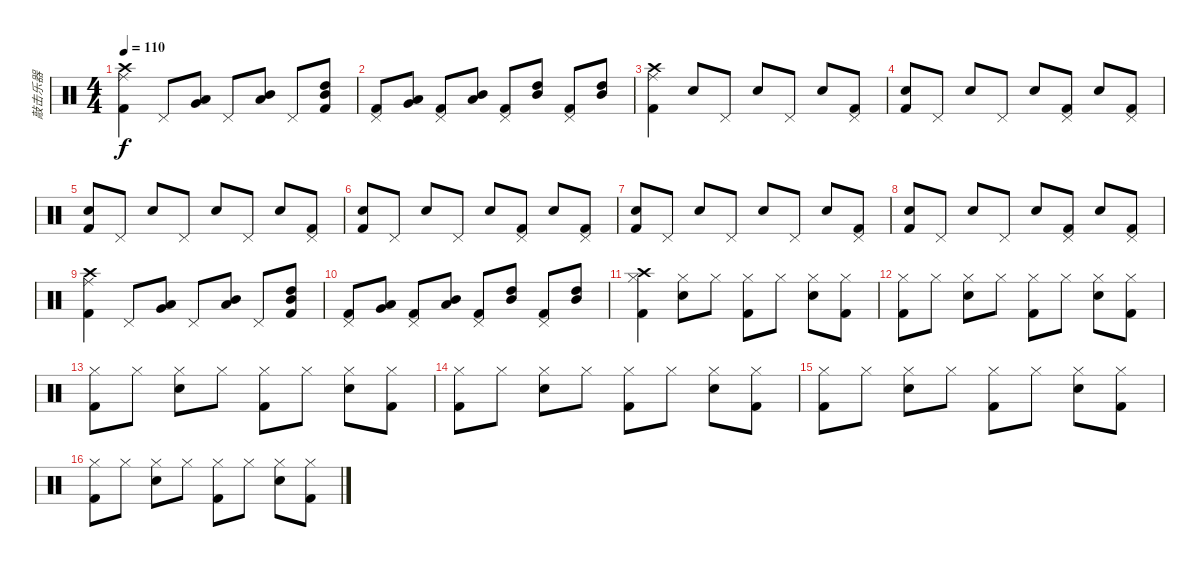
\track ("敲击乐器" "敲击乐器") {instrument percussion}
\staff {score}
\articulation defaults
\ts (4 4)
\tempo 110
\clef neutral
\ks c
("Crash high (hit)" "Ride (middle)" "Kick (hit) 2").4{dy f} "Pedal Hi-Hat (hit)".8 ("Very Low Tom (hit)" "Low Tom (hit)").8 "Pedal Hi-Hat (hit)".8 ("Low Tom (hit)" "Mid Tom (hit)").8 "Pedal Hi-Hat (hit)".8 ("Mid Tom (hit)" "High Tom (hit)" "Kick (hit) 2").8 |
("Pedal Hi-Hat (hit)" "Kick (hit) 2").8 ("Very Low Tom (hit)" "Low Tom (hit)").8 ("Pedal Hi-Hat (hit)" "Kick (hit) 2").8 ("Low Tom (hit)" "Mid Tom (hit)").8 ("Pedal Hi-Hat (hit)" "Kick (hit) 2").8 ("Mid Tom (hit)" "High Tom (hit)").8 ("Pedal Hi-Hat (hit)" "Kick (hit) 2").8 ("Mid Tom (hit)" "High Tom (hit)").8 |
("Crash high (hit)" "Ride (middle)" "Kick (hit) 2").4 "Hand Clap (hit)".8 "Pedal Hi-Hat (hit)".8 "Hand Clap (hit)".8 "Pedal Hi-Hat (hit)".8 "Hand Clap (hit)".8 ("Pedal Hi-Hat (hit)" "Kick (hit) 2").8 |
("Hand Clap (hit)" "Kick (hit) 2").8 "Pedal Hi-Hat (hit)".8 "Hand Clap (hit)".8 "Pedal Hi-Hat (hit)".8 "Hand Clap (hit)".8 ("Pedal Hi-Hat (hit)" "Kick (hit) 2").8 "Hand Clap (hit)".8 ("Pedal Hi-Hat (hit)" "Kick (hit) 2").8 |
("Hand Clap (hit)" "Kick (hit) 2").8 "Pedal Hi-Hat (hit)".8 "Hand Clap (hit)".8 "Pedal Hi-Hat (hit)".8 "Hand Clap (hit)".8 "Pedal Hi-Hat (hit)".8 "Hand Clap (hit)".8 ("Pedal Hi-Hat (hit)" "Kick (hit) 2").8 |
("Hand Clap (hit)" "Kick (hit) 2").8 "Pedal Hi-Hat (hit)".8 "Hand Clap (hit)".8 "Pedal Hi-Hat (hit)".8 "Hand Clap (hit)".8 ("Pedal Hi-Hat (hit)" "Kick (hit) 2").8 "Hand Clap (hit)".8 ("Pedal Hi-Hat (hit)" "Kick (hit) 2").8 |
("Hand Clap (hit)" "Kick (hit) 2").8 "Pedal Hi-Hat (hit)".8 "Hand Clap (hit)".8 "Pedal Hi-Hat (hit)".8 "Hand Clap (hit)".8 "Pedal Hi-Hat (hit)".8 "Hand Clap (hit)".8 ("Pedal Hi-Hat (hit)" "Kick (hit) 2").8 |
("Hand Clap (hit)" "Kick (hit) 2").8 "Pedal Hi-Hat (hit)".8 "Hand Clap (hit)".8 "Pedal Hi-Hat (hit)".8 "Hand Clap (hit)".8 ("Pedal Hi-Hat (hit)" "Kick (hit) 2").8 "Hand Clap (hit)".8 ("Pedal Hi-Hat (hit)" "Kick (hit) 2").8 |
("Crash high (hit)" "Ride (middle)" "Kick (hit) 2").4 "Pedal Hi-Hat (hit)".8 ("Very Low Tom (hit)" "Low Tom (hit)").8 "Pedal Hi-Hat (hit)".8 ("Low Tom (hit)" "Mid Tom (hit)").8 "Pedal Hi-Hat (hit)".8 ("Mid Tom (hit)" "High Tom (hit)" "Kick (hit) 2").8 |
("Pedal Hi-Hat (hit)" "Kick (hit) 2").8 ("Very Low Tom (hit)" "Low Tom (hit)").8 ("Pedal Hi-Hat (hit)" "Kick (hit) 2").8 ("Low Tom (hit)" "Mid Tom (hit)").8 ("Pedal Hi-Hat (hit)" "Kick (hit) 2").8 ("Mid Tom (hit)" "High Tom (hit)").8 ("Pedal Hi-Hat (hit)" "Kick (hit) 2").8 ("Mid Tom (hit)" "High Tom (hit)").8 |
("Crash high (hit)" "Hi-Hat (closed)" "Kick (hit) 2").4 ("Hi-Hat (closed)" "Electric Snare (hit)").8 "Hi-Hat (closed)".8 ("Hi-Hat (closed)" "Kick (hit) 2").8 "Hi-Hat (closed)".8 ("Hi-Hat (closed)" "Electric Snare (hit)").8 ("Hi-Hat (closed)" "Kick (hit) 2").8 |
("Hi-Hat (closed)" "Kick (hit) 2").8 "Hi-Hat (closed)".8 ("Hi-Hat (closed)" "Electric Snare (hit)").8 "Hi-Hat (closed)".8 ("Hi-Hat (closed)" "Kick (hit) 2").8 "Hi-Hat (closed)".8 ("Hi-Hat (closed)" "Electric Snare (hit)").8 ("Hi-Hat (closed)" "Kick (hit) 2").8 |
("Hi-Hat (closed)" "Kick (hit) 2").8 "Hi-Hat (closed)".8 ("Hi-Hat (closed)" "Electric Snare (hit)").8 "Hi-Hat (closed)".8 ("Hi-Hat (closed)" "Kick (hit) 2").8 "Hi-Hat (closed)".8 ("Hi-Hat (closed)" "Electric Snare (hit)").8 ("Hi-Hat (closed)" "Kick (hit) 2").8 |
("Hi-Hat (closed)" "Kick (hit) 2").8 "Hi-Hat (closed)".8 ("Hi-Hat (closed)" "Electric Snare (hit)").8 "Hi-Hat (closed)".8 ("Hi-Hat (closed)" "Kick (hit) 2").8 "Hi-Hat (closed)".8 ("Hi-Hat (closed)" "Electric Snare (hit)").8 ("Hi-Hat (closed)" "Kick (hit) 2").8 |
("Hi-Hat (closed)" "Kick (hit) 2").8 "Hi-Hat (closed)".8 ("Hi-Hat (closed)" "Electric Snare (hit)").8 "Hi-Hat (closed)".8 ("Hi-Hat (closed)" "Kick (hit) 2").8 "Hi-Hat (closed)".8 ("Hi-Hat (closed)" "Electric Snare (hit)").8 ("Hi-Hat (closed)" "Kick (hit) 2").8 |
("Hi-Hat (closed)" "Kick (hit) 2").8 "Hi-Hat (closed)".8 ("Hi-Hat (closed)" "Electric Snare (hit)").8 "Hi-Hat (closed)".8 ("Hi-Hat (closed)" "Kick (hit) 2").8 "Hi-Hat (closed)".8 ("Hi-Hat (closed)" "Electric Snare (hit)").8 ("Hi-Hat (closed)" "Kick (hit) 2").8
